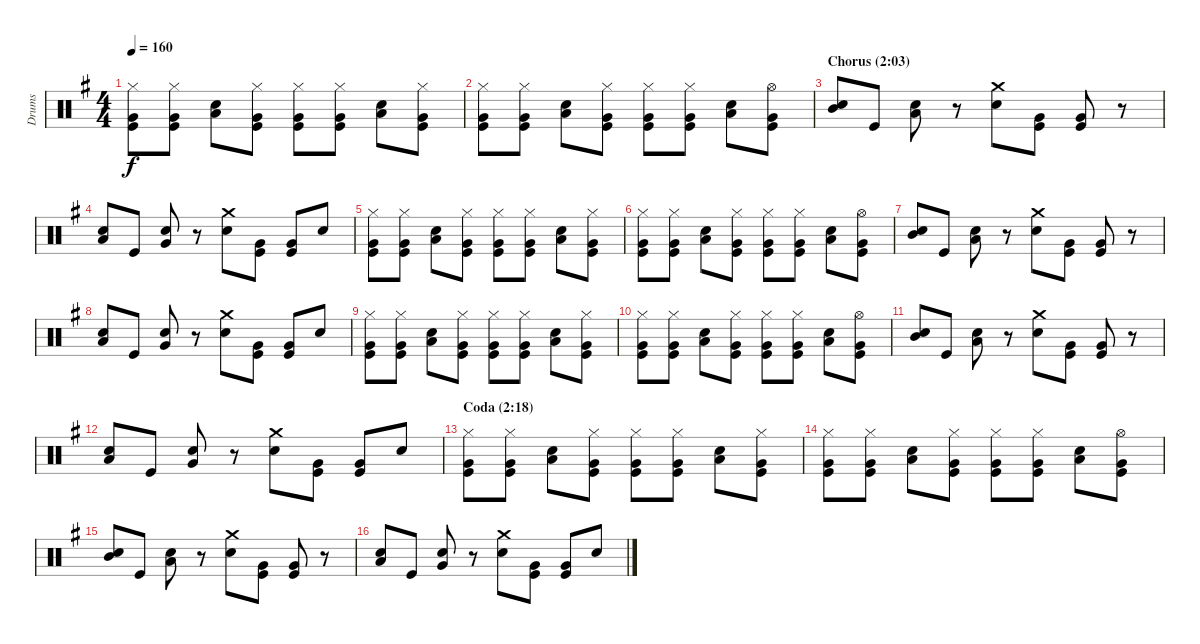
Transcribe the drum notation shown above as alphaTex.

\track ("Drums" "Drums") {instrument percussion}
\staff {score}
\articulation defaults
\ts (4 4)
\tempo 160
\clef neutral
\ks g
("Hi-Hat (closed)" "Very Low Tom (hit)" "Kick (hit)").8{dy f} ("Hi-Hat (closed)" "Very Low Tom (hit)" "Kick (hit)").8 ("Snare (hit) 2" "Low Tom (hit)").8 ("Hi-Hat (closed)" "Very Low Tom (hit)" "Kick (hit)").8 ("Hi-Hat (closed)" "Very Low Tom (hit)" "Kick (hit)").8 ("Hi-Hat (closed)" "Very Low Tom (hit)" "Kick (hit)").8 ("Snare (hit) 2" "Low Tom (hit)").8 ("Hi-Hat (closed)" "Very Low Tom (hit)" "Kick (hit)").8 |
("Hi-Hat (closed)" "Very Low Tom (hit)" "Kick (hit)").8 ("Hi-Hat (closed)" "Very Low Tom (hit)" "Kick (hit)").8 ("Snare (hit) 2" "Low Tom (hit)").8 ("Hi-Hat (closed)" "Very Low Tom (hit)" "Kick (hit)").8 ("Hi-Hat (closed)" "Very Low Tom (hit)" "Kick (hit)").8 ("Hi-Hat (closed)" "Very Low Tom (hit)" "Kick (hit)").8 ("Snare (hit) 2" "Low Tom (hit)").8 ("Hi-Hat (open)" "Very Low Tom (hit)" "Kick (hit)").8 |
\section ("" "Chorus (2:03)")
("Snare (hit) 2" "Mid Tom (hit)").8 "Kick (hit)".8 ("Snare (hit) 2" "Low Tom (hit)").8 r.8 ("Crash medium (hit)" "Snare (hit) 2").8 ("Very Low Tom (hit)" "Kick (hit)").8 ("Very Low Tom (hit)" "Kick (hit)").8 r.8 |
("Snare (hit) 2" "Low Tom (hit)").8 "Kick (hit)".8 ("Snare (hit) 2" "Very Low Tom (hit)").8 r.8 ("Crash medium (hit)" "Snare (hit) 2").8 ("Very Low Tom (hit)" "Kick (hit)").8 ("Very Low Tom (hit)" "Kick (hit)").8 "Snare (hit) 2".8 |
("Hi-Hat (closed)" "Very Low Tom (hit)" "Kick (hit)").8 ("Hi-Hat (closed)" "Very Low Tom (hit)" "Kick (hit)").8 ("Snare (hit) 2" "Low Tom (hit)").8 ("Hi-Hat (closed)" "Very Low Tom (hit)" "Kick (hit)").8 ("Hi-Hat (closed)" "Very Low Tom (hit)" "Kick (hit)").8 ("Hi-Hat (closed)" "Very Low Tom (hit)" "Kick (hit)").8 ("Snare (hit) 2" "Low Tom (hit)").8 ("Hi-Hat (closed)" "Very Low Tom (hit)" "Kick (hit)").8 |
("Hi-Hat (closed)" "Very Low Tom (hit)" "Kick (hit)").8 ("Hi-Hat (closed)" "Very Low Tom (hit)" "Kick (hit)").8 ("Snare (hit) 2" "Low Tom (hit)").8 ("Hi-Hat (closed)" "Very Low Tom (hit)" "Kick (hit)").8 ("Hi-Hat (closed)" "Very Low Tom (hit)" "Kick (hit)").8 ("Hi-Hat (closed)" "Very Low Tom (hit)" "Kick (hit)").8 ("Snare (hit) 2" "Low Tom (hit)").8 ("Hi-Hat (open)" "Very Low Tom (hit)" "Kick (hit)").8 |
("Snare (hit) 2" "Mid Tom (hit)").8 "Kick (hit)".8 ("Snare (hit) 2" "Low Tom (hit)").8 r.8 ("Crash medium (hit)" "Snare (hit) 2").8 ("Very Low Tom (hit)" "Kick (hit)").8 ("Very Low Tom (hit)" "Kick (hit)").8 r.8 |
("Snare (hit) 2" "Low Tom (hit)").8 "Kick (hit)".8 ("Snare (hit) 2" "Very Low Tom (hit)").8 r.8 ("Crash medium (hit)" "Snare (hit) 2").8 ("Very Low Tom (hit)" "Kick (hit)").8 ("Very Low Tom (hit)" "Kick (hit)").8 "Snare (hit) 2".8 |
("Hi-Hat (closed)" "Very Low Tom (hit)" "Kick (hit)").8 ("Hi-Hat (closed)" "Very Low Tom (hit)" "Kick (hit)").8 ("Snare (hit) 2" "Low Tom (hit)").8 ("Hi-Hat (closed)" "Very Low Tom (hit)" "Kick (hit)").8 ("Hi-Hat (closed)" "Very Low Tom (hit)" "Kick (hit)").8 ("Hi-Hat (closed)" "Very Low Tom (hit)" "Kick (hit)").8 ("Snare (hit) 2" "Low Tom (hit)").8 ("Hi-Hat (closed)" "Very Low Tom (hit)" "Kick (hit)").8 |
("Hi-Hat (closed)" "Very Low Tom (hit)" "Kick (hit)").8 ("Hi-Hat (closed)" "Very Low Tom (hit)" "Kick (hit)").8 ("Snare (hit) 2" "Low Tom (hit)").8 ("Hi-Hat (closed)" "Very Low Tom (hit)" "Kick (hit)").8 ("Hi-Hat (closed)" "Very Low Tom (hit)" "Kick (hit)").8 ("Hi-Hat (closed)" "Very Low Tom (hit)" "Kick (hit)").8 ("Snare (hit) 2" "Low Tom (hit)").8 ("Hi-Hat (open)" "Very Low Tom (hit)" "Kick (hit)").8 |
("Snare (hit) 2" "Mid Tom (hit)").8 "Kick (hit)".8 ("Snare (hit) 2" "Low Tom (hit)").8 r.8 ("Crash medium (hit)" "Snare (hit) 2").8 ("Very Low Tom (hit)" "Kick (hit)").8 ("Very Low Tom (hit)" "Kick (hit)").8 r.8 |
("Snare (hit) 2" "Low Tom (hit)").8 "Kick (hit)".8 ("Snare (hit) 2" "Very Low Tom (hit)").8 r.8 ("Crash medium (hit)" "Snare (hit) 2").8 ("Very Low Tom (hit)" "Kick (hit)").8 ("Very Low Tom (hit)" "Kick (hit)").8 "Snare (hit) 2".8 |
\section ("" "Coda (2:18)")
("Hi-Hat (closed)" "Very Low Tom (hit)" "Kick (hit)").8 ("Hi-Hat (closed)" "Very Low Tom (hit)" "Kick (hit)").8 ("Snare (hit) 2" "Low Tom (hit)").8 ("Hi-Hat (closed)" "Very Low Tom (hit)" "Kick (hit)").8 ("Hi-Hat (closed)" "Very Low Tom (hit)" "Kick (hit)").8 ("Hi-Hat (closed)" "Very Low Tom (hit)" "Kick (hit)").8 ("Snare (hit) 2" "Low Tom (hit)").8 ("Hi-Hat (closed)" "Very Low Tom (hit)" "Kick (hit)").8 |
("Hi-Hat (closed)" "Very Low Tom (hit)" "Kick (hit)").8 ("Hi-Hat (closed)" "Very Low Tom (hit)" "Kick (hit)").8 ("Snare (hit) 2" "Low Tom (hit)").8 ("Hi-Hat (closed)" "Very Low Tom (hit)" "Kick (hit)").8 ("Hi-Hat (closed)" "Very Low Tom (hit)" "Kick (hit)").8 ("Hi-Hat (closed)" "Very Low Tom (hit)" "Kick (hit)").8 ("Snare (hit) 2" "Low Tom (hit)").8 ("Hi-Hat (open)" "Very Low Tom (hit)" "Kick (hit)").8 |
("Snare (hit) 2" "Mid Tom (hit)").8 "Kick (hit)".8 ("Snare (hit) 2" "Low Tom (hit)").8 r.8 ("Crash medium (hit)" "Snare (hit) 2").8 ("Very Low Tom (hit)" "Kick (hit)").8 ("Very Low Tom (hit)" "Kick (hit)").8 r.8 |
("Snare (hit) 2" "Low Tom (hit)").8 "Kick (hit)".8 ("Snare (hit) 2" "Very Low Tom (hit)").8 r.8 ("Crash medium (hit)" "Snare (hit) 2").8 ("Very Low Tom (hit)" "Kick (hit)").8 ("Very Low Tom (hit)" "Kick (hit)").8 "Snare (hit) 2".8
